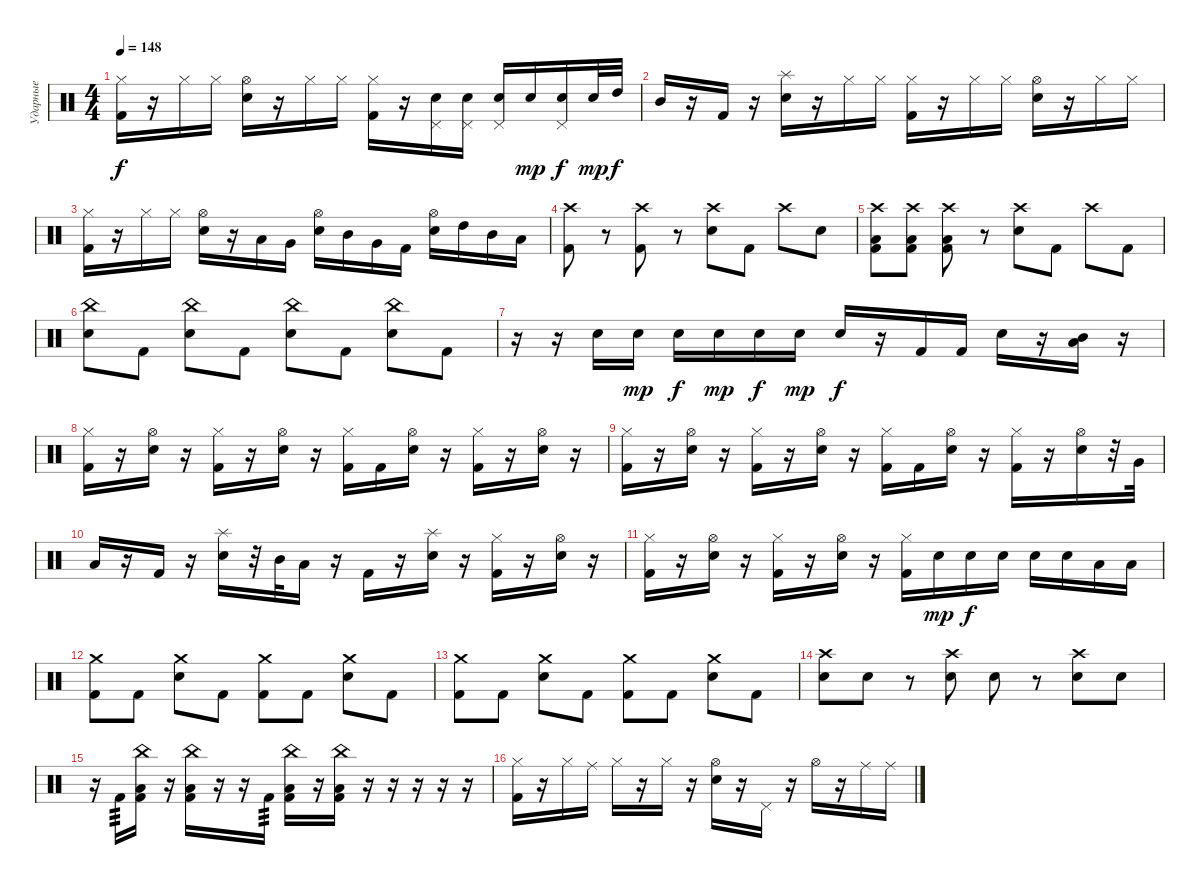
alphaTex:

\track ("Ударные" "Ударные") {instrument percussion}
\staff {score}
\articulation defaults
\ts (4 4)
\tempo 148
\clef neutral
\ks c
("Hi-Hat (closed)" "Kick (hit) 2").16{dy f} r.16 "Hi-Hat (closed)".16 "Hi-Hat (closed)".16 ("Hi-Hat (open)" "Electric Snare (hit)").16 r.16 "Hi-Hat (closed)".16 "Hi-Hat (closed)".16 ("Hi-Hat (closed)" "Kick (hit) 2").16 r.16 ("Pedal Hi-Hat (hit)" "Electric Snare (hit)").16 ("Pedal Hi-Hat (hit)" "Electric Snare (hit)").16 ("Pedal Hi-Hat (hit)" "Electric Snare (hit)").16 "Electric Snare (hit)".16{dy mp} ("Pedal Hi-Hat (hit)" "Electric Snare (hit)").16{dy f} "Electric Snare (hit)".32{dy mp} "High Tom (hit)".32{dy f} |
"Mid Tom (hit)".16 r.16 "Kick (hit) 2".16 r.16 ("Splash (hit)" "Electric Snare (hit)").16 r.16 "Hi-Hat (closed)".16 "Hi-Hat (closed)".16 ("Hi-Hat (closed)" "Kick (hit) 2").16 r.16 "Hi-Hat (closed)".16 "Hi-Hat (closed)".16 ("Electric Snare (hit)" "Hi-Hat (open)").16 r.16 "Hi-Hat (closed)".16 "Hi-Hat (closed)".16 |
("Hi-Hat (closed)" "Kick (hit) 2").16 r.16 "Hi-Hat (closed)".16 "Hi-Hat (closed)".16 ("Hi-Hat (open)" "Electric Snare (hit)").16 r.16 "Low Tom (hit)".16 "Very Low Tom (hit)".16 ("Hi-Hat (open)" "Electric Snare (hit)").16 "Mid Tom (hit)".16 "Very Low Tom (hit)".16 "Kick (hit) 2".16 ("Hi-Hat (open)" "Electric Snare (hit)").16 "High Tom (hit)".16 "Mid Tom (hit)".16 "Low Tom (hit)".16 |
("Crash high (hit)" "Kick (hit) 2").8 r.8 ("Crash high (hit)" "Kick (hit) 2").8 r.8 ("Crash high (hit)" "Electric Snare (hit)").8 "Kick (hit) 2".8 "Crash high (hit)".8 "Electric Snare (hit)".8 |
("Crash high (hit)" "Low Tom (hit)" "Kick (hit) 2").8 ("Crash high (hit)" "Low Tom (hit)" "Kick (hit) 2").8 ("Crash high (hit)" "Low Tom (hit)" "Kick (hit) 2").8 r.8 ("Crash high (hit)" "Electric Snare (hit)").8 "Kick (hit) 2".8 "Crash high (hit)".8 "Kick (hit) 2".8 |
("China (hit)" "Electric Snare (hit)").8 "Kick (hit) 2".8 ("China (hit)" "Electric Snare (hit)").8 "Kick (hit) 2".8 ("China (hit)" "Electric Snare (hit)").8 "Kick (hit) 2".8 ("China (hit)" "Electric Snare (hit)").8 "Kick (hit) 2".8 |
r.16 r.16 "Electric Snare (hit)".16 "Electric Snare (hit)".16{dy mp} "Electric Snare (hit)".16{dy f} "Electric Snare (hit)".16{dy mp} "Electric Snare (hit)".16{dy f} "Electric Snare (hit)".16{dy mp} "Electric Snare (hit)".16{dy f} r.16 "Kick (hit) 2".16 "Kick (hit) 2".16 "Electric Snare (hit)".16 r.16 ("Mid Tom (hit)" "Low Tom (hit)").16 r.16 |
("Hi-Hat (closed)" "Kick (hit) 2").16 r.16 ("Hi-Hat (open)" "Electric Snare (hit)").16 r.16 ("Hi-Hat (closed)" "Kick (hit) 2").16 r.16 ("Hi-Hat (open)" "Electric Snare (hit)").16 r.16 ("Hi-Hat (closed)" "Kick (hit) 2").16 "Kick (hit) 2".16 ("Hi-Hat (open)" "Electric Snare (hit)").16 r.16 ("Hi-Hat (closed)" "Kick (hit) 2").16 r.16 ("Hi-Hat (open)" "Electric Snare (hit)").16 r.16 |
("Hi-Hat (closed)" "Kick (hit) 2").16 r.16 ("Hi-Hat (open)" "Electric Snare (hit)").16 r.16 ("Hi-Hat (closed)" "Kick (hit) 2").16 r.16 ("Hi-Hat (open)" "Electric Snare (hit)").16 r.16 ("Hi-Hat (closed)" "Kick (hit) 2").16 "Kick (hit) 2".16 ("Hi-Hat (open)" "Electric Snare (hit)").16 r.16 ("Hi-Hat (closed)" "Kick (hit) 2").16 r.16 ("Hi-Hat (open)" "Electric Snare (hit)").16 r.32 "Very Low Tom (hit)".32 |
"Low Tom (hit)".16 r.16 "Kick (hit) 2".16 r.16 ("Splash (hit)" "Electric Snare (hit)").16 r.32 "Mid Tom (hit)".32 "Low Tom (hit)".16 r.16 "Kick (hit) 2".16 r.16 ("Splash (hit)" "Electric Snare (hit)").16 r.16 ("Hi-Hat (closed)" "Kick (hit) 2").16 r.16 ("Hi-Hat (open)" "Electric Snare (hit)").16 r.16 |
("Hi-Hat (closed)" "Kick (hit) 2").16 r.16 ("Hi-Hat (open)" "Electric Snare (hit)").16 r.16 ("Hi-Hat (closed)" "Kick (hit) 2").16 r.16 ("Hi-Hat (open)" "Electric Snare (hit)").16 r.16 ("Hi-Hat (closed)" "Kick (hit) 2").16 "Electric Snare (hit)".16{dy mp} "Electric Snare (hit)".16{dy f} "Electric Snare (hit)".16 "Electric Snare (hit)".16 "Electric Snare (hit)".16 "Low Tom (hit)".16 "Low Tom (hit)".16 |
("Crash medium (hit)" "Kick (hit) 2").8 "Kick (hit) 2".8 ("Crash medium (hit)" "Electric Snare (hit)").8 "Kick (hit) 2".8 ("Crash medium (hit)" "Kick (hit) 2").8 "Kick (hit) 2".8 ("Crash medium (hit)" "Electric Snare (hit)").8 "Kick (hit) 2".8 |
("Crash medium (hit)" "Kick (hit) 2").8 "Kick (hit) 2".8 ("Crash medium (hit)" "Electric Snare (hit)").8 "Kick (hit) 2".8 ("Crash medium (hit)" "Kick (hit) 2").8 "Kick (hit) 2".8 ("Crash medium (hit)" "Electric Snare (hit)").8 "Kick (hit) 2".8 |
("Crash high (hit)" "Electric Snare (hit)").8 "Electric Snare (hit)".8 r.8 ("Crash high (hit)" "Electric Snare (hit)").8 "Electric Snare (hit)".8 r.8 ("Crash high (hit)" "Electric Snare (hit)").8 "Electric Snare (hit)".8 |
r.16 "Kick (hit) 2".16{tp 3} ("China (hit)" "Low Tom (hit)" "Kick (hit) 2").16 r.16 ("China (hit)" "Low Tom (hit)" "Kick (hit) 2").16 r.16 r.16 "Kick (hit) 2".16{tp 3} ("China (hit)" "Low Tom (hit)" "Kick (hit) 2").16 r.16 ("China (hit)" "Low Tom (hit)" "Kick (hit) 2").16 r.16 r.16 r.16 r.16 r.16 |
("Hi-Hat (closed)" "Kick (hit) 2").16 r.16 "Hi-Hat (closed)".16 "Ride (middle)".16 "Hi-Hat (closed)".16 r.16 "Hi-Hat (closed)".16 r.16 ("Hi-Hat (open)" "Electric Snare (hit)").16 r.16 "Pedal Hi-Hat (hit)".16 r.16 "Hi-Hat (open)".16 r.16 "Ride (middle)".16 "Ride (middle)".16
